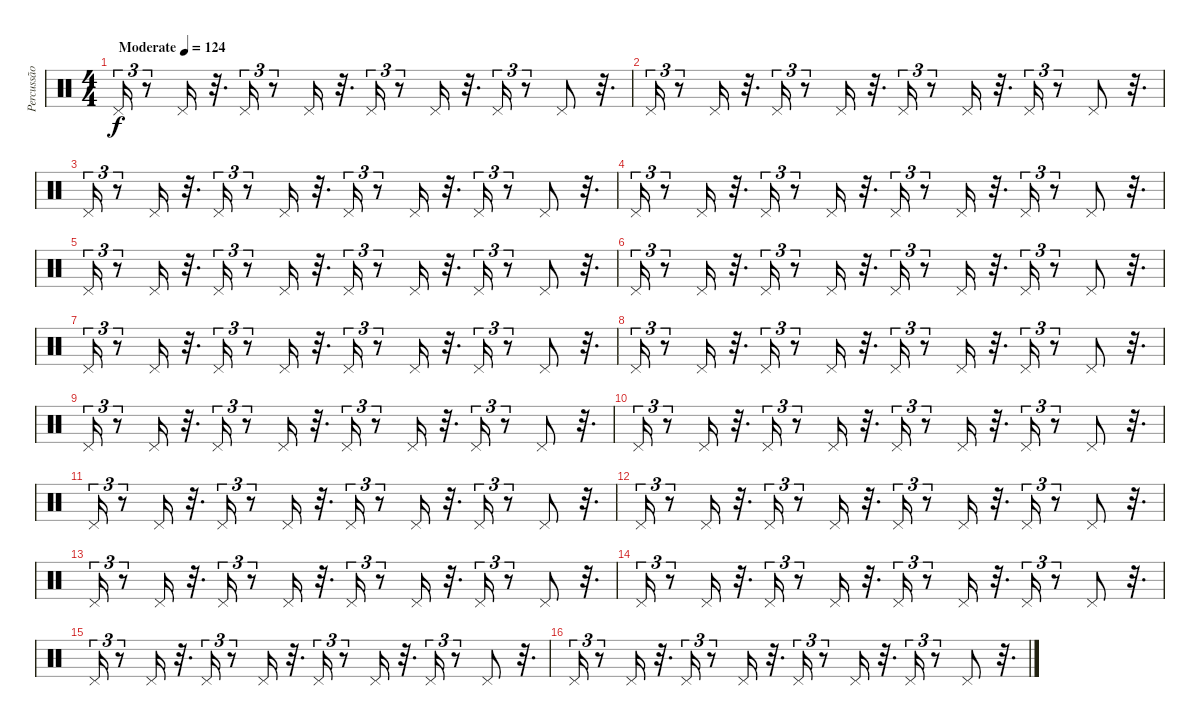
\track ("Percussão" "Percussão") {instrument percussion}
\staff {score}
\articulation defaults
\ts (4 4)
\tempo (124 "Moderate")
\clef neutral
\ks c "Pedal Hi-Hat (hit)".16{tu (3 2) dy f}
r.8{tu (3 2)} "Pedal Hi-Hat (hit)".16 r.32{d} "Pedal Hi-Hat (hit)".16{tu (3 2)} r.8{tu (3 2)} "Pedal Hi-Hat (hit)".16 r.32{d} "Pedal Hi-Hat (hit)".16{tu (3 2)} r.8{tu (3 2)} "Pedal Hi-Hat (hit)".16 r.32{d} "Pedal Hi-Hat (hit)".16{tu (3 2)} r.8{tu (3 2)} "Pedal Hi-Hat (hit)".8 r.32{d} |
"Pedal Hi-Hat (hit)".16{tu (3 2)} r.8{tu (3 2)} "Pedal Hi-Hat (hit)".16 r.32{d} "Pedal Hi-Hat (hit)".16{tu (3 2)} r.8{tu (3 2)} "Pedal Hi-Hat (hit)".16 r.32{d} "Pedal Hi-Hat (hit)".16{tu (3 2)} r.8{tu (3 2)} "Pedal Hi-Hat (hit)".16 r.32{d} "Pedal Hi-Hat (hit)".16{tu (3 2)} r.8{tu (3 2)} "Pedal Hi-Hat (hit)".8 r.32{d} |
"Pedal Hi-Hat (hit)".16{tu (3 2)} r.8{tu (3 2)} "Pedal Hi-Hat (hit)".16 r.32{d} "Pedal Hi-Hat (hit)".16{tu (3 2)} r.8{tu (3 2)} "Pedal Hi-Hat (hit)".16 r.32{d} "Pedal Hi-Hat (hit)".16{tu (3 2)} r.8{tu (3 2)} "Pedal Hi-Hat (hit)".16 r.32{d} "Pedal Hi-Hat (hit)".16{tu (3 2)} r.8{tu (3 2)} "Pedal Hi-Hat (hit)".8 r.32{d} |
"Pedal Hi-Hat (hit)".16{tu (3 2)} r.8{tu (3 2)} "Pedal Hi-Hat (hit)".16 r.32{d} "Pedal Hi-Hat (hit)".16{tu (3 2)} r.8{tu (3 2)} "Pedal Hi-Hat (hit)".16 r.32{d} "Pedal Hi-Hat (hit)".16{tu (3 2)} r.8{tu (3 2)} "Pedal Hi-Hat (hit)".16 r.32{d} "Pedal Hi-Hat (hit)".16{tu (3 2)} r.8{tu (3 2)} "Pedal Hi-Hat (hit)".8 r.32{d} |
"Pedal Hi-Hat (hit)".16{tu (3 2)} r.8{tu (3 2)} "Pedal Hi-Hat (hit)".16 r.32{d} "Pedal Hi-Hat (hit)".16{tu (3 2)} r.8{tu (3 2)} "Pedal Hi-Hat (hit)".16 r.32{d} "Pedal Hi-Hat (hit)".16{tu (3 2)} r.8{tu (3 2)} "Pedal Hi-Hat (hit)".16 r.32{d} "Pedal Hi-Hat (hit)".16{tu (3 2)} r.8{tu (3 2)} "Pedal Hi-Hat (hit)".8 r.32{d} |
"Pedal Hi-Hat (hit)".16{tu (3 2)} r.8{tu (3 2)} "Pedal Hi-Hat (hit)".16 r.32{d} "Pedal Hi-Hat (hit)".16{tu (3 2)} r.8{tu (3 2)} "Pedal Hi-Hat (hit)".16 r.32{d} "Pedal Hi-Hat (hit)".16{tu (3 2)} r.8{tu (3 2)} "Pedal Hi-Hat (hit)".16 r.32{d} "Pedal Hi-Hat (hit)".16{tu (3 2)} r.8{tu (3 2)} "Pedal Hi-Hat (hit)".8 r.32{d} |
"Pedal Hi-Hat (hit)".16{tu (3 2)} r.8{tu (3 2)} "Pedal Hi-Hat (hit)".16 r.32{d} "Pedal Hi-Hat (hit)".16{tu (3 2)} r.8{tu (3 2)} "Pedal Hi-Hat (hit)".16 r.32{d} "Pedal Hi-Hat (hit)".16{tu (3 2)} r.8{tu (3 2)} "Pedal Hi-Hat (hit)".16 r.32{d} "Pedal Hi-Hat (hit)".16{tu (3 2)} r.8{tu (3 2)} "Pedal Hi-Hat (hit)".8 r.32{d} |
"Pedal Hi-Hat (hit)".16{tu (3 2)} r.8{tu (3 2)} "Pedal Hi-Hat (hit)".16 r.32{d} "Pedal Hi-Hat (hit)".16{tu (3 2)} r.8{tu (3 2)} "Pedal Hi-Hat (hit)".16 r.32{d} "Pedal Hi-Hat (hit)".16{tu (3 2)} r.8{tu (3 2)} "Pedal Hi-Hat (hit)".16 r.32{d} "Pedal Hi-Hat (hit)".16{tu (3 2)} r.8{tu (3 2)} "Pedal Hi-Hat (hit)".8 r.32{d} |
"Pedal Hi-Hat (hit)".16{tu (3 2)} r.8{tu (3 2)} "Pedal Hi-Hat (hit)".16 r.32{d} "Pedal Hi-Hat (hit)".16{tu (3 2)} r.8{tu (3 2)} "Pedal Hi-Hat (hit)".16 r.32{d} "Pedal Hi-Hat (hit)".16{tu (3 2)} r.8{tu (3 2)} "Pedal Hi-Hat (hit)".16 r.32{d} "Pedal Hi-Hat (hit)".16{tu (3 2)} r.8{tu (3 2)} "Pedal Hi-Hat (hit)".8 r.32{d} |
"Pedal Hi-Hat (hit)".16{tu (3 2)} r.8{tu (3 2)} "Pedal Hi-Hat (hit)".16 r.32{d} "Pedal Hi-Hat (hit)".16{tu (3 2)} r.8{tu (3 2)} "Pedal Hi-Hat (hit)".16 r.32{d} "Pedal Hi-Hat (hit)".16{tu (3 2)} r.8{tu (3 2)} "Pedal Hi-Hat (hit)".16 r.32{d} "Pedal Hi-Hat (hit)".16{tu (3 2)} r.8{tu (3 2)} "Pedal Hi-Hat (hit)".8 r.32{d} |
"Pedal Hi-Hat (hit)".16{tu (3 2)} r.8{tu (3 2)} "Pedal Hi-Hat (hit)".16 r.32{d} "Pedal Hi-Hat (hit)".16{tu (3 2)} r.8{tu (3 2)} "Pedal Hi-Hat (hit)".16 r.32{d} "Pedal Hi-Hat (hit)".16{tu (3 2)} r.8{tu (3 2)} "Pedal Hi-Hat (hit)".16 r.32{d} "Pedal Hi-Hat (hit)".16{tu (3 2)} r.8{tu (3 2)} "Pedal Hi-Hat (hit)".8 r.32{d} |
"Pedal Hi-Hat (hit)".16{tu (3 2)} r.8{tu (3 2)} "Pedal Hi-Hat (hit)".16 r.32{d} "Pedal Hi-Hat (hit)".16{tu (3 2)} r.8{tu (3 2)} "Pedal Hi-Hat (hit)".16 r.32{d} "Pedal Hi-Hat (hit)".16{tu (3 2)} r.8{tu (3 2)} "Pedal Hi-Hat (hit)".16 r.32{d} "Pedal Hi-Hat (hit)".16{tu (3 2)} r.8{tu (3 2)} "Pedal Hi-Hat (hit)".8 r.32{d} |
"Pedal Hi-Hat (hit)".16{tu (3 2)} r.8{tu (3 2)} "Pedal Hi-Hat (hit)".16 r.32{d} "Pedal Hi-Hat (hit)".16{tu (3 2)} r.8{tu (3 2)} "Pedal Hi-Hat (hit)".16 r.32{d} "Pedal Hi-Hat (hit)".16{tu (3 2)} r.8{tu (3 2)} "Pedal Hi-Hat (hit)".16 r.32{d} "Pedal Hi-Hat (hit)".16{tu (3 2)} r.8{tu (3 2)} "Pedal Hi-Hat (hit)".8 r.32{d} |
"Pedal Hi-Hat (hit)".16{tu (3 2)} r.8{tu (3 2)} "Pedal Hi-Hat (hit)".16 r.32{d} "Pedal Hi-Hat (hit)".16{tu (3 2)} r.8{tu (3 2)} "Pedal Hi-Hat (hit)".16 r.32{d} "Pedal Hi-Hat (hit)".16{tu (3 2)} r.8{tu (3 2)} "Pedal Hi-Hat (hit)".16 r.32{d} "Pedal Hi-Hat (hit)".16{tu (3 2)} r.8{tu (3 2)} "Pedal Hi-Hat (hit)".8 r.32{d} |
"Pedal Hi-Hat (hit)".16{tu (3 2)} r.8{tu (3 2)} "Pedal Hi-Hat (hit)".16 r.32{d} "Pedal Hi-Hat (hit)".16{tu (3 2)} r.8{tu (3 2)} "Pedal Hi-Hat (hit)".16 r.32{d} "Pedal Hi-Hat (hit)".16{tu (3 2)} r.8{tu (3 2)} "Pedal Hi-Hat (hit)".16 r.32{d} "Pedal Hi-Hat (hit)".16{tu (3 2)} r.8{tu (3 2)} "Pedal Hi-Hat (hit)".8 r.32{d} |
"Pedal Hi-Hat (hit)".16{tu (3 2)} r.8{tu (3 2)} "Pedal Hi-Hat (hit)".16 r.32{d} "Pedal Hi-Hat (hit)".16{tu (3 2)} r.8{tu (3 2)} "Pedal Hi-Hat (hit)".16 r.32{d} "Pedal Hi-Hat (hit)".16{tu (3 2)} r.8{tu (3 2)} "Pedal Hi-Hat (hit)".16 r.32{d} "Pedal Hi-Hat (hit)".16{tu (3 2)} r.8{tu (3 2)} "Pedal Hi-Hat (hit)".8 r.32{d}
